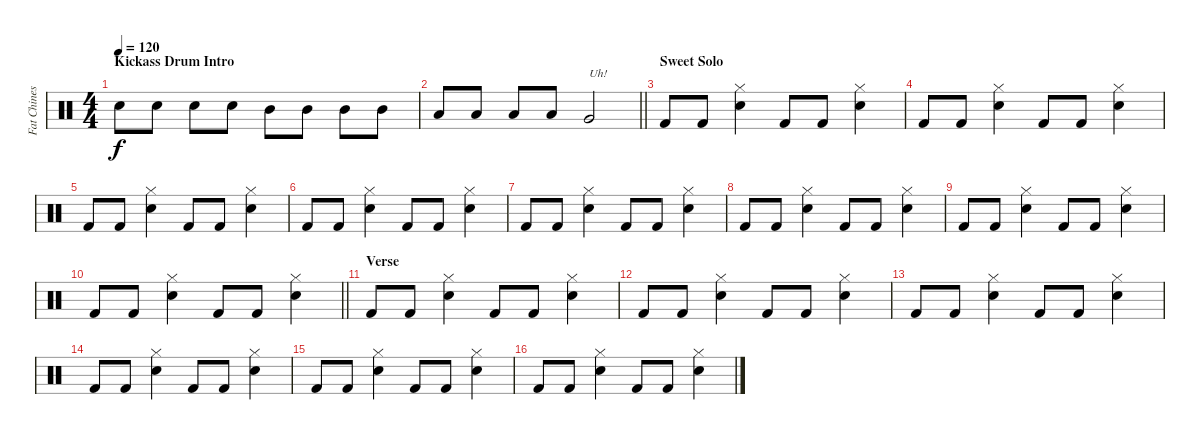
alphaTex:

\track ("Fat Chinese Drummer" "Fat Chines") {instrument percussion}
\staff {score}
\articulation defaults
\ts (4 4)
\section ("" "Kickass Drum Intro")
\tempo 120
\clef neutral
\ks c "Electric Snare (hit)".8{dy f} "Electric Snare (hit)".8 "Electric Snare (hit)".8 "Electric Snare (hit)".8 "Mid Tom (hit)".8 "Mid Tom (hit)".8 "Mid Tom (hit)".8 "Mid Tom (hit)".8
|
\barLineRight lightlight "Low Tom (hit)".8 "Low Tom (hit)".8 "Low Tom (hit)".8 "Low Tom (hit)".8 "Very Low Tom (hit)".2{txt "Uh!"}
|
\section ("" "Sweet Solo")
"Kick (hit) 2".8 "Kick (hit) 2".8 ("Hi-Hat (closed)" "Electric Snare (hit)").4 "Kick (hit) 2".8 "Kick (hit) 2".8 ("Hi-Hat (closed)" "Electric Snare (hit)").4 |
"Kick (hit) 2".8 "Kick (hit) 2".8 ("Hi-Hat (closed)" "Electric Snare (hit)").4 "Kick (hit) 2".8 "Kick (hit) 2".8 ("Hi-Hat (closed)" "Electric Snare (hit)").4 |
"Kick (hit) 2".8 "Kick (hit) 2".8 ("Hi-Hat (closed)" "Electric Snare (hit)").4 "Kick (hit) 2".8 "Kick (hit) 2".8 ("Hi-Hat (closed)" "Electric Snare (hit)").4 |
"Kick (hit) 2".8 "Kick (hit) 2".8 ("Hi-Hat (closed)" "Electric Snare (hit)").4 "Kick (hit) 2".8 "Kick (hit) 2".8 ("Hi-Hat (closed)" "Electric Snare (hit)").4 |
"Kick (hit) 2".8 "Kick (hit) 2".8 ("Hi-Hat (closed)" "Electric Snare (hit)").4 "Kick (hit) 2".8 "Kick (hit) 2".8 ("Hi-Hat (closed)" "Electric Snare (hit)").4 |
"Kick (hit) 2".8 "Kick (hit) 2".8 ("Hi-Hat (closed)" "Electric Snare (hit)").4 "Kick (hit) 2".8 "Kick (hit) 2".8 ("Hi-Hat (closed)" "Electric Snare (hit)").4 |
"Kick (hit) 2".8 "Kick (hit) 2".8 ("Hi-Hat (closed)" "Electric Snare (hit)").4 "Kick (hit) 2".8 "Kick (hit) 2".8 ("Hi-Hat (closed)" "Electric Snare (hit)").4 |
\barLineRight lightlight "Kick (hit) 2".8 "Kick (hit) 2".8
("Hi-Hat (closed)" "Electric Snare (hit)").4 "Kick (hit) 2".8 "Kick (hit) 2".8 ("Hi-Hat (closed)" "Electric Snare (hit)").4 |
\section ("" "Verse")
"Kick (hit) 2".8 "Kick (hit) 2".8 ("Hi-Hat (closed)" "Electric Snare (hit)").4 "Kick (hit) 2".8 "Kick (hit) 2".8 ("Hi-Hat (closed)" "Electric Snare (hit)").4 |
"Kick (hit) 2".8 "Kick (hit) 2".8 ("Hi-Hat (closed)" "Electric Snare (hit)").4 "Kick (hit) 2".8 "Kick (hit) 2".8 ("Hi-Hat (closed)" "Electric Snare (hit)").4 |
"Kick (hit) 2".8 "Kick (hit) 2".8 ("Hi-Hat (closed)" "Electric Snare (hit)").4 "Kick (hit) 2".8 "Kick (hit) 2".8 ("Hi-Hat (closed)" "Electric Snare (hit)").4 |
"Kick (hit) 2".8 "Kick (hit) 2".8 ("Hi-Hat (closed)" "Electric Snare (hit)").4 "Kick (hit) 2".8 "Kick (hit) 2".8 ("Hi-Hat (closed)" "Electric Snare (hit)").4 |
"Kick (hit) 2".8 "Kick (hit) 2".8 ("Hi-Hat (closed)" "Electric Snare (hit)").4 "Kick (hit) 2".8 "Kick (hit) 2".8 ("Hi-Hat (closed)" "Electric Snare (hit)").4 |
"Kick (hit) 2".8 "Kick (hit) 2".8 ("Hi-Hat (closed)" "Electric Snare (hit)").4 "Kick (hit) 2".8 "Kick (hit) 2".8 ("Hi-Hat (closed)" "Electric Snare (hit)").4
